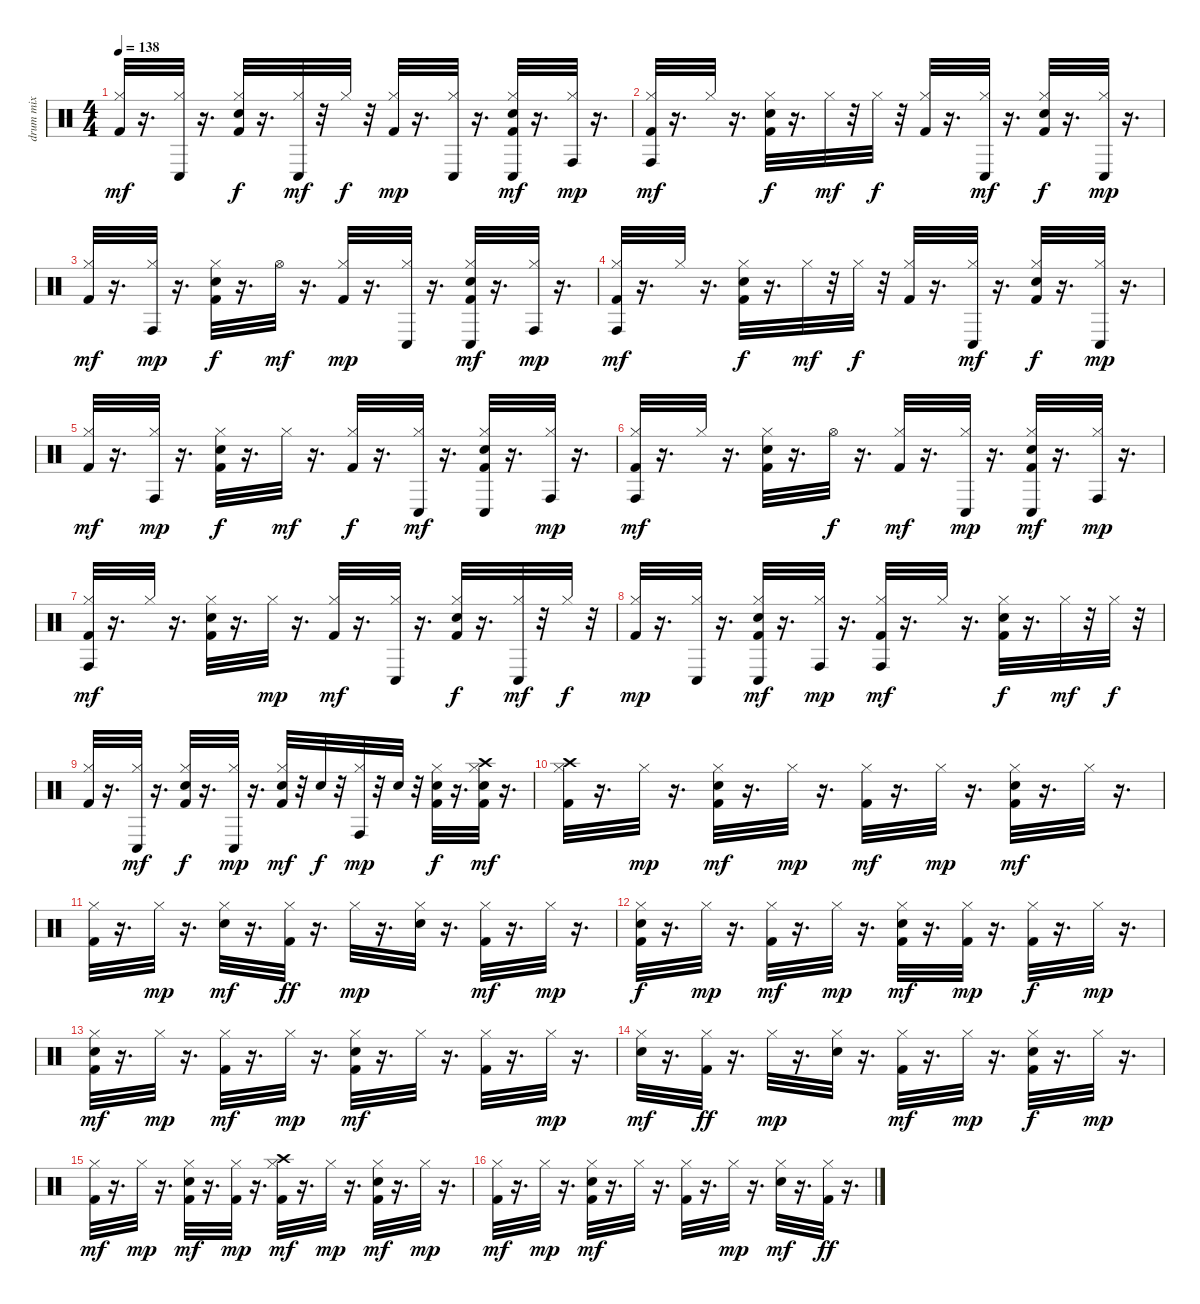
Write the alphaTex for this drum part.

\track ("drum mix" "drum mix") {instrument percussion}
\staff {score}
\articulation defaults
\ts (4 4)
\tempo 138
\clef neutral
\ks c
("Hi-Hat (closed)" "Kick (hit) 2").32{dy mf} r.16{d} ("Hi-Hat (closed)" "Conga low (hit)").32 r.16{d} ("Snare (hit) 2" "Hi-Hat (closed)" "Kick (hit) 2").32{dy f} r.16{d} ("Hi-Hat (closed)" "Conga low (hit)").32{dy mf} r.32 "Hi-Hat (closed)".32{dy f} r.32 ("Hi-Hat (closed)" "Kick (hit) 2").32{dy mp} r.16{d} ("Hi-Hat (closed)" "Conga low (hit)").32 r.16{d} ("Snare (hit) 2" "Hi-Hat (closed)" "Conga low (hit)" "Kick (hit) 2").32{dy mf} r.16{d} ("Hi-Hat (closed)" "Conga high (hit)").32{dy mp} r.16{d} |
("Hi-Hat (closed)" "Conga high (hit)" "Kick (hit) 2").32{dy mf} r.16{d} "Hi-Hat (closed)".32 r.16{d} ("Snare (hit) 2" "Hi-Hat (closed)" "Kick (hit) 2").32{dy f} r.16{d} "Hi-Hat (closed)".32{dy mf} r.32 "Hi-Hat (closed)".32{dy f} r.32 ("Hi-Hat (closed)" "Kick (hit) 2").32 r.16{d} ("Hi-Hat (closed)" "Conga low (hit)").32{dy mf} r.16{d} ("Snare (hit) 2" "Hi-Hat (closed)" "Kick (hit) 2").32{dy f} r.16{d} ("Hi-Hat (closed)" "Conga low (hit)").32{dy mp} r.16{d} |
("Hi-Hat (closed)" "Kick (hit) 2").32{dy mf} r.16{d} ("Hi-Hat (closed)" "Conga high (hit)").32{dy mp} r.16{d} ("Snare (hit) 2" "Hi-Hat (closed)" "Kick (hit) 2").32{dy f} r.16{d} "Hi-Hat (open)".32{dy mf} r.16{d} ("Hi-Hat (closed)" "Kick (hit) 2").32{dy mp} r.16{d} ("Hi-Hat (closed)" "Conga low (hit)").32 r.16{d} ("Snare (hit) 2" "Hi-Hat (closed)" "Conga low (hit)" "Kick (hit) 2").32{dy mf} r.16{d} ("Hi-Hat (closed)" "Conga high (hit)").32{dy mp} r.16{d} |
("Hi-Hat (closed)" "Conga high (hit)" "Kick (hit) 2").32{dy mf} r.16{d} "Hi-Hat (closed)".32 r.16{d} ("Snare (hit) 2" "Hi-Hat (closed)" "Kick (hit) 2").32{dy f} r.16{d} "Hi-Hat (closed)".32{dy mf} r.32 "Hi-Hat (closed)".32{dy f} r.32 ("Hi-Hat (closed)" "Kick (hit) 2").32 r.16{d} ("Hi-Hat (closed)" "Conga low (hit)").32{dy mf} r.16{d} ("Snare (hit) 2" "Hi-Hat (closed)" "Kick (hit) 2").32{dy f} r.16{d} ("Hi-Hat (closed)" "Conga low (hit)").32{dy mp} r.16{d} |
("Hi-Hat (closed)" "Kick (hit) 2").32{dy mf} r.16{d} ("Hi-Hat (closed)" "Conga high (hit)").32{dy mp} r.16{d} ("Snare (hit) 2" "Hi-Hat (closed)" "Kick (hit) 2").32{dy f} r.16{d} "Hi-Hat (closed)".32{dy mf} r.16{d} ("Hi-Hat (closed)" "Kick (hit) 2").32{dy f} r.16{d} ("Hi-Hat (closed)" "Conga low (hit)").32{dy mf} r.16{d} ("Snare (hit) 2" "Hi-Hat (closed)" "Conga low (hit)" "Kick (hit) 2").32 r.16{d} ("Hi-Hat (closed)" "Conga high (hit)").32{dy mp} r.16{d} |
("Hi-Hat (closed)" "Conga high (hit)" "Kick (hit) 2").32{dy mf} r.16{d} "Hi-Hat (closed)".32 r.16{d} ("Snare (hit) 2" "Hi-Hat (closed)" "Kick (hit) 2").32 r.16{d} "Hi-Hat (open)".32{dy f} r.16{d} ("Hi-Hat (closed)" "Kick (hit) 2").32{dy mf} r.16{d} ("Hi-Hat (closed)" "Conga low (hit)").32{dy mp} r.16{d} ("Snare (hit) 2" "Hi-Hat (closed)" "Conga low (hit)" "Kick (hit) 2").32{dy mf} r.16{d} ("Hi-Hat (closed)" "Conga high (hit)").32{dy mp} r.16{d} |
("Hi-Hat (closed)" "Conga high (hit)" "Kick (hit) 2").32{dy mf} r.16{d} "Hi-Hat (closed)".32 r.16{d} ("Snare (hit) 2" "Hi-Hat (closed)" "Kick (hit) 2").32 r.16{d} "Hi-Hat (closed)".32{dy mp} r.16{d} ("Hi-Hat (closed)" "Kick (hit) 2").32{dy mf} r.16{d} ("Hi-Hat (closed)" "Conga low (hit)").32 r.16{d} ("Snare (hit) 2" "Hi-Hat (closed)" "Kick (hit) 2").32{dy f} r.16{d} ("Hi-Hat (closed)" "Conga low (hit)").32{dy mf} r.32 "Hi-Hat (closed)".32{dy f} r.32 |
("Hi-Hat (closed)" "Kick (hit) 2").32{dy mp} r.16{d} ("Hi-Hat (closed)" "Conga low (hit)").32 r.16{d} ("Snare (hit) 2" "Hi-Hat (closed)" "Conga low (hit)" "Kick (hit) 2").32{dy mf} r.16{d} ("Hi-Hat (closed)" "Conga high (hit)").32{dy mp} r.16{d} ("Hi-Hat (closed)" "Conga high (hit)" "Kick (hit) 2").32{dy mf} r.16{d} "Hi-Hat (closed)".32 r.16{d} ("Snare (hit) 2" "Hi-Hat (closed)" "Kick (hit) 2").32{dy f} r.16{d} "Hi-Hat (closed)".32{dy mf} r.32 "Hi-Hat (closed)".32{dy f} r.32 |
("Hi-Hat (closed)" "Kick (hit) 2").32 r.16{d} ("Hi-Hat (closed)" "Conga low (hit)").32{dy mf} r.16{d} ("Snare (hit) 2" "Hi-Hat (closed)" "Kick (hit) 2").32{dy f} r.16{d} ("Hi-Hat (closed)" "Conga low (hit)").32{dy mp} r.16{d} ("Snare (hit) 2" "Hi-Hat (closed)" "Kick (hit) 2").32{dy mf} r.32 "Snare (hit) 2".32{dy f} r.32 ("Hi-Hat (closed)" "Conga high (hit)").32{dy mp} r.32 "Snare (hit) 2".32 r.32 ("Snare (hit) 2" "Hi-Hat (closed)" "Kick (hit) 2").32{dy f} r.16{d} ("Snare (hit) 2" "Hi-Hat (closed)" "Crash high (hit)" "Kick (hit) 2").32{dy mf} r.16{d} |
("Hi-Hat (closed)" "Crash high (hit)" "Kick (hit) 2").32 r.16{d} "Hi-Hat (closed)".32{dy mp} r.16{d} ("Snare (hit) 2" "Hi-Hat (closed)" "Kick (hit) 2").32{dy mf} r.16{d} "Hi-Hat (closed)".32{dy mp} r.16{d} ("Hi-Hat (closed)" "Kick (hit) 2").32{dy mf} r.16{d} "Hi-Hat (closed)".32{dy mp} r.16{d} ("Snare (hit) 2" "Hi-Hat (closed)" "Kick (hit) 2").32{dy mf} r.16{d} "Hi-Hat (closed)".32 r.16{d} |
("Hi-Hat (closed)" "Kick (hit) 2").32 r.16{d} "Hi-Hat (closed)".32{dy mp} r.16{d} ("Snare (hit) 2" "Hi-Hat (closed)").32{dy mf} r.16{d} ("Hi-Hat (closed)" "Kick (hit) 2").32{dy ff} r.16{d} "Hi-Hat (closed)".32{dy mp} r.16{d} ("Snare (hit) 2" "Hi-Hat (closed)").32 r.16{d} ("Hi-Hat (closed)" "Kick (hit) 2").32{dy mf} r.16{d} "Hi-Hat (closed)".32{dy mp} r.16{d} |
("Snare (hit) 2" "Hi-Hat (closed)" "Kick (hit) 2").32{dy f} r.16{d} "Hi-Hat (closed)".32{dy mp} r.16{d} ("Hi-Hat (closed)" "Kick (hit) 2").32{dy mf} r.16{d} "Hi-Hat (closed)".32{dy mp} r.16{d} ("Snare (hit) 2" "Hi-Hat (closed)" "Kick (hit) 2").32{dy mf} r.16{d} ("Hi-Hat (closed)" "Kick (hit) 2").32{dy mp} r.16{d} ("Hi-Hat (closed)" "Kick (hit) 2").32{dy f} r.16{d} "Hi-Hat (closed)".32{dy mp} r.16{d} |
("Snare (hit) 2" "Hi-Hat (closed)" "Kick (hit) 2").32{dy mf} r.16{d} "Hi-Hat (closed)".32{dy mp} r.16{d} ("Hi-Hat (closed)" "Kick (hit) 2").32{dy mf} r.16{d} "Hi-Hat (closed)".32{dy mp} r.16{d} ("Snare (hit) 2" "Hi-Hat (closed)" "Kick (hit) 2").32{dy mf} r.16{d} "Hi-Hat (closed)".32 r.16{d} ("Hi-Hat (closed)" "Kick (hit) 2").32 r.16{d} "Hi-Hat (closed)".32{dy mp} r.16{d} |
("Snare (hit) 2" "Hi-Hat (closed)").32{dy mf} r.16{d} ("Hi-Hat (closed)" "Kick (hit) 2").32{dy ff} r.16{d} "Hi-Hat (closed)".32{dy mp} r.16{d} ("Snare (hit) 2" "Hi-Hat (closed)").32 r.16{d} ("Hi-Hat (closed)" "Kick (hit) 2").32{dy mf} r.16{d} "Hi-Hat (closed)".32{dy mp} r.16{d} ("Snare (hit) 2" "Hi-Hat (closed)" "Kick (hit) 2").32{dy f} r.16{d} "Hi-Hat (closed)".32{dy mp} r.16{d} |
("Hi-Hat (closed)" "Kick (hit) 2").32{dy mf} r.16{d} "Hi-Hat (closed)".32{dy mp} r.16{d} ("Snare (hit) 2" "Hi-Hat (closed)" "Kick (hit) 2").32{dy mf} r.16{d} ("Hi-Hat (closed)" "Kick (hit) 2").32{dy mp} r.16{d} ("Hi-Hat (closed)" "Crash high (hit)" "Kick (hit) 2").32{dy mf} r.16{d} "Hi-Hat (closed)".32{dy mp} r.16{d} ("Snare (hit) 2" "Hi-Hat (closed)" "Kick (hit) 2").32{dy mf} r.16{d} "Hi-Hat (closed)".32{dy mp} r.16{d} |
("Hi-Hat (closed)" "Kick (hit) 2").32{dy mf} r.16{d} "Hi-Hat (closed)".32{dy mp} r.16{d} ("Snare (hit) 2" "Hi-Hat (closed)" "Kick (hit) 2").32{dy mf} r.16{d} "Hi-Hat (closed)".32 r.16{d} ("Hi-Hat (closed)" "Kick (hit) 2").32 r.16{d} "Hi-Hat (closed)".32{dy mp} r.16{d} ("Snare (hit) 2" "Hi-Hat (closed)").32{dy mf} r.16{d} ("Hi-Hat (closed)" "Kick (hit) 2").32{dy ff} r.16{d}
